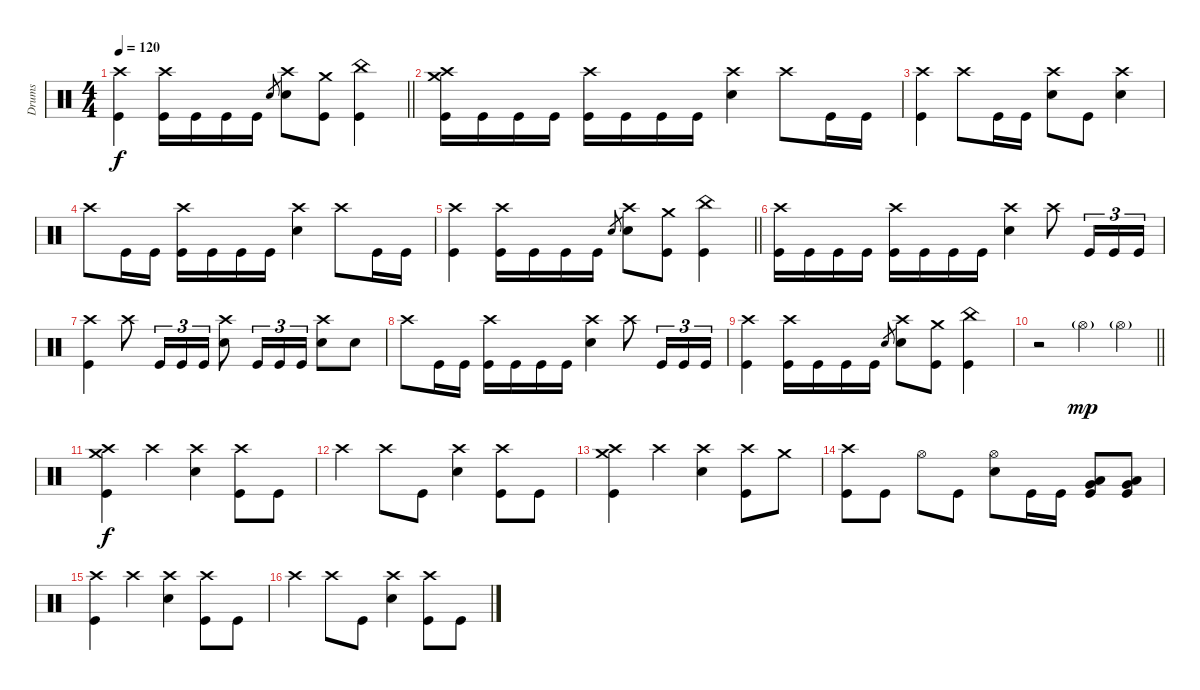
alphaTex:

\track ("Drums" "Drums") {instrument percussion}
\staff
\articulation defaults
\ts (4 4)
\tempo 120
\clef neutral
\barLineRight lightlight
\ks c
("Crash high (hit)" "Kick (hit)").4{dy f} ("Crash high (hit)" "Kick (hit)").16 "Kick (hit)".16 "Kick (hit)".16 "Kick (hit)".16 "Electric Snare (hit)".8{gr} ("Crash high (hit)" "Electric Snare (hit)").8 ("Crash medium (hit)" "Kick (hit)").8 ("China (hit)" "Kick (hit)").4 |
("Crash high (hit)" "Crash medium (hit)" "Kick (hit)").16 "Kick (hit)".16 "Kick (hit)".16 "Kick (hit)".16 ("Crash high (hit)" "Kick (hit)").16 "Kick (hit)".16 "Kick (hit)".16 "Kick (hit)".16 ("Crash high (hit)" "Electric Snare (hit)").4 "Crash high (hit)".8 "Kick (hit)".16 "Kick (hit)".16 |
("Crash high (hit)" "Kick (hit)").4 "Crash high (hit)".8 "Kick (hit)".16 "Kick (hit)".16 ("Crash high (hit)" "Electric Snare (hit)").8 "Kick (hit)".8 ("Crash high (hit)" "Electric Snare (hit)").4 |
"Crash high (hit)".8 "Kick (hit)".16 "Kick (hit)".16 ("Crash high (hit)" "Kick (hit)").16 "Kick (hit)".16 "Kick (hit)".16 "Kick (hit)".16 ("Crash high (hit)" "Electric Snare (hit)").4 "Crash high (hit)".8 "Kick (hit)".16 "Kick (hit)".16 |
\barLineRight lightlight
("Crash high (hit)" "Kick (hit)").4 ("Crash high (hit)" "Kick (hit)").16 "Kick (hit)".16 "Kick (hit)".16 "Kick (hit)".16 "Electric Snare (hit)".8{gr} ("Crash high (hit)" "Electric Snare (hit)").8 ("Crash medium (hit)" "Kick (hit)").8 ("China (hit)" "Kick (hit)").4 |
("Crash high (hit)" "Kick (hit)").16 "Kick (hit)".16 "Kick (hit)".16 "Kick (hit)".16 ("Crash high (hit)" "Kick (hit)").16 "Kick (hit)".16 "Kick (hit)".16 "Kick (hit)".16 ("Crash high (hit)" "Electric Snare (hit)").4 "Crash high (hit)".8 "Kick (hit)".16{tu (3 2)} "Kick (hit)".16{tu (3 2)} "Kick (hit)".16{tu (3 2)} |
("Crash high (hit)" "Kick (hit)").4 "Crash high (hit)".8 "Kick (hit)".16{tu (3 2)} "Kick (hit)".16{tu (3 2)} "Kick (hit)".16{tu (3 2)} ("Crash high (hit)" "Electric Snare (hit)").8 "Kick (hit)".16{tu (3 2)} "Kick (hit)".16{tu (3 2)} "Kick (hit)".16{tu (3 2)} ("Crash high (hit)" "Electric Snare (hit)").8 "Electric Snare (hit)".8 |
"Crash high (hit)".8 "Kick (hit)".16 "Kick (hit)".16 ("Crash high (hit)" "Kick (hit)").16 "Kick (hit)".16 "Kick (hit)".16 "Kick (hit)".16 ("Crash high (hit)" "Electric Snare (hit)").4 "Crash high (hit)".8 "Kick (hit)".16{tu (3 2)} "Kick (hit)".16{tu (3 2)} "Kick (hit)".16{tu (3 2)} |
("Crash high (hit)" "Kick (hit)").4 ("Crash high (hit)" "Kick (hit)").16 "Kick (hit)".16 "Kick (hit)".16 "Kick (hit)".16 "Electric Snare (hit)".8{gr} ("Crash high (hit)" "Electric Snare (hit)").8 ("Crash medium (hit)" "Kick (hit)").8 ("China (hit)" "Kick (hit)").4 |
\barLineRight lightlight
r.2 "Hi-Hat (open)"{g}.4{dy mp} "Hi-Hat (open)"{g}.4 |
\section ("" "")
("Crash high (hit)" "Crash medium (hit)" "Kick (hit)").4{dy f} "Crash high (hit)".4 ("Crash high (hit)" "Electric Snare (hit)").4 ("Crash high (hit)" "Kick (hit)").8 "Kick (hit)".8 |
"Crash high (hit)".4 "Crash high (hit)".8 "Kick (hit)".8 ("Crash high (hit)" "Electric Snare (hit)").4 ("Crash high (hit)" "Kick (hit)").8 "Kick (hit)".8 |
("Crash high (hit)" "Crash medium (hit)" "Kick (hit)").4 "Crash high (hit)".4 ("Crash high (hit)" "Electric Snare (hit)").4 ("Crash high (hit)" "Kick (hit)").8 "Crash medium (hit)".8 |
("Crash high (hit)" "Kick (hit)").8 "Kick (hit)".8 "Hi-Hat (open)".8 "Kick (hit)".8 ("Hi-Hat (open)" "Electric Snare (hit)").8 "Kick (hit)".16 "Kick (hit)".16 ("Very Low Tom (hit)" "Low Floor Tom (hit)" "Kick (hit)").8 ("Very Low Tom (hit)" "Low Floor Tom (hit)" "Kick (hit)").8 |
("Crash high (hit)" "Kick (hit)").4 "Crash high (hit)".4 ("Crash high (hit)" "Electric Snare (hit)").4 ("Crash high (hit)" "Kick (hit)").8 "Kick (hit)".8 |
"Crash high (hit)".4 "Crash high (hit)".8 "Kick (hit)".8 ("Crash high (hit)" "Electric Snare (hit)").4 ("Crash high (hit)" "Kick (hit)").8 "Kick (hit)".8
